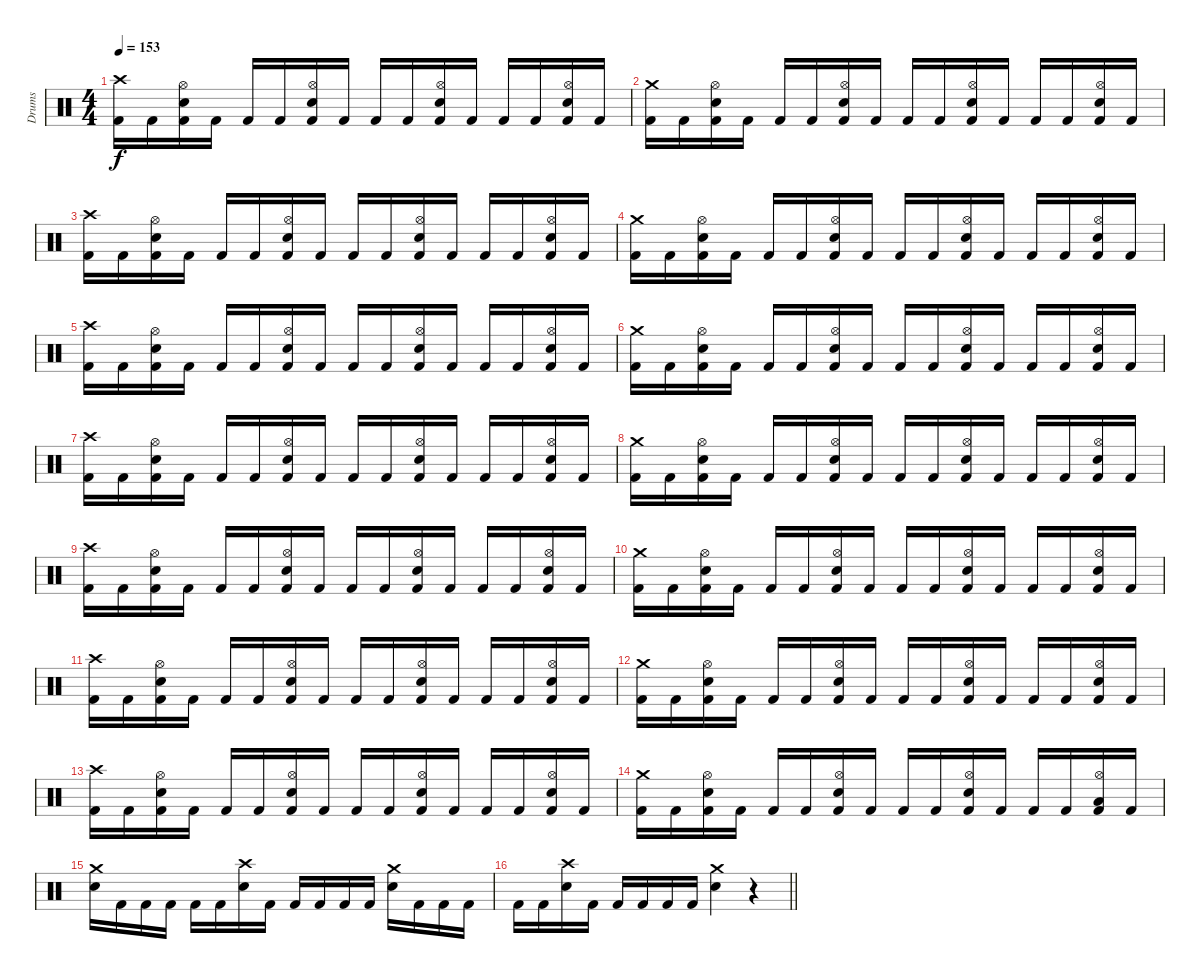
\track ("Drums" "Drums") {instrument percussion}
\staff {score}
\articulation defaults
\ts (4 4)
\tempo 153
\clef neutral
\ks c
("Crash high (hit)" "Kick (hit) 2").16{dy f} "Kick (hit) 2".16 ("Hi-Hat (open)" "Snare (hit) 2" "Kick (hit) 2").16 "Kick (hit) 2".16 "Kick (hit) 2".16 "Kick (hit) 2".16 ("Hi-Hat (open)" "Snare (hit) 2" "Kick (hit) 2").16 "Kick (hit) 2".16 "Kick (hit) 2".16 "Kick (hit) 2".16 ("Hi-Hat (open)" "Snare (hit) 2" "Kick (hit) 2").16 "Kick (hit) 2".16 "Kick (hit) 2".16 "Kick (hit) 2".16 ("Hi-Hat (open)" "Snare (hit) 2" "Kick (hit) 2").16 "Kick (hit) 2".16 |
("Crash medium (hit)" "Kick (hit) 2").16 "Kick (hit) 2".16 ("Hi-Hat (open)" "Snare (hit) 2" "Kick (hit) 2").16 "Kick (hit) 2".16 "Kick (hit) 2".16 "Kick (hit) 2".16 ("Hi-Hat (open)" "Snare (hit) 2" "Kick (hit) 2").16 "Kick (hit) 2".16 "Kick (hit) 2".16 "Kick (hit) 2".16 ("Hi-Hat (open)" "Snare (hit) 2" "Kick (hit) 2").16 "Kick (hit) 2".16 "Kick (hit) 2".16 "Kick (hit) 2".16 ("Hi-Hat (open)" "Snare (hit) 2" "Kick (hit) 2").16 "Kick (hit) 2".16 |
("Crash high (hit)" "Kick (hit) 2").16 "Kick (hit) 2".16 ("Hi-Hat (open)" "Snare (hit) 2" "Kick (hit) 2").16 "Kick (hit) 2".16 "Kick (hit) 2".16 "Kick (hit) 2".16 ("Hi-Hat (open)" "Snare (hit) 2" "Kick (hit) 2").16 "Kick (hit) 2".16 "Kick (hit) 2".16 "Kick (hit) 2".16 ("Hi-Hat (open)" "Snare (hit) 2" "Kick (hit) 2").16 "Kick (hit) 2".16 "Kick (hit) 2".16 "Kick (hit) 2".16 ("Hi-Hat (open)" "Snare (hit) 2" "Kick (hit) 2").16 "Kick (hit) 2".16 |
("Crash medium (hit)" "Kick (hit) 2").16 "Kick (hit) 2".16 ("Hi-Hat (open)" "Snare (hit) 2" "Kick (hit) 2").16 "Kick (hit) 2".16 "Kick (hit) 2".16 "Kick (hit) 2".16 ("Hi-Hat (open)" "Snare (hit) 2" "Kick (hit) 2").16 "Kick (hit) 2".16 "Kick (hit) 2".16 "Kick (hit) 2".16 ("Hi-Hat (open)" "Snare (hit) 2" "Kick (hit) 2").16 "Kick (hit) 2".16 "Kick (hit) 2".16 "Kick (hit) 2".16 ("Hi-Hat (open)" "Snare (hit) 2" "Kick (hit) 2").16 "Kick (hit) 2".16 |
("Crash high (hit)" "Kick (hit) 2").16 "Kick (hit) 2".16 ("Hi-Hat (open)" "Snare (hit) 2" "Kick (hit) 2").16 "Kick (hit) 2".16 "Kick (hit) 2".16 "Kick (hit) 2".16 ("Hi-Hat (open)" "Snare (hit) 2" "Kick (hit) 2").16 "Kick (hit) 2".16 "Kick (hit) 2".16 "Kick (hit) 2".16 ("Hi-Hat (open)" "Snare (hit) 2" "Kick (hit) 2").16 "Kick (hit) 2".16 "Kick (hit) 2".16 "Kick (hit) 2".16 ("Hi-Hat (open)" "Snare (hit) 2" "Kick (hit) 2").16 "Kick (hit) 2".16 |
("Crash medium (hit)" "Kick (hit) 2").16 "Kick (hit) 2".16 ("Hi-Hat (open)" "Snare (hit) 2" "Kick (hit) 2").16 "Kick (hit) 2".16 "Kick (hit) 2".16 "Kick (hit) 2".16 ("Hi-Hat (open)" "Snare (hit) 2" "Kick (hit) 2").16 "Kick (hit) 2".16 "Kick (hit) 2".16 "Kick (hit) 2".16 ("Hi-Hat (open)" "Snare (hit) 2" "Kick (hit) 2").16 "Kick (hit) 2".16 "Kick (hit) 2".16 "Kick (hit) 2".16 ("Hi-Hat (open)" "Snare (hit) 2" "Kick (hit) 2").16 "Kick (hit) 2".16 |
("Crash high (hit)" "Kick (hit) 2").16 "Kick (hit) 2".16 ("Hi-Hat (open)" "Snare (hit) 2" "Kick (hit) 2").16 "Kick (hit) 2".16 "Kick (hit) 2".16 "Kick (hit) 2".16 ("Hi-Hat (open)" "Snare (hit) 2" "Kick (hit) 2").16 "Kick (hit) 2".16 "Kick (hit) 2".16 "Kick (hit) 2".16 ("Hi-Hat (open)" "Snare (hit) 2" "Kick (hit) 2").16 "Kick (hit) 2".16 "Kick (hit) 2".16 "Kick (hit) 2".16 ("Hi-Hat (open)" "Snare (hit) 2" "Kick (hit) 2").16 "Kick (hit) 2".16 |
("Crash medium (hit)" "Kick (hit) 2").16 "Kick (hit) 2".16 ("Hi-Hat (open)" "Snare (hit) 2" "Kick (hit) 2").16 "Kick (hit) 2".16 "Kick (hit) 2".16 "Kick (hit) 2".16 ("Hi-Hat (open)" "Snare (hit) 2" "Kick (hit) 2").16 "Kick (hit) 2".16 "Kick (hit) 2".16 "Kick (hit) 2".16 ("Hi-Hat (open)" "Snare (hit) 2" "Kick (hit) 2").16 "Kick (hit) 2".16 "Kick (hit) 2".16 "Kick (hit) 2".16 ("Hi-Hat (open)" "Snare (hit) 2" "Kick (hit) 2").16 "Kick (hit) 2".16 |
("Crash high (hit)" "Kick (hit) 2").16 "Kick (hit) 2".16 ("Hi-Hat (open)" "Snare (hit) 2" "Kick (hit) 2").16 "Kick (hit) 2".16 "Kick (hit) 2".16 "Kick (hit) 2".16 ("Hi-Hat (open)" "Snare (hit) 2" "Kick (hit) 2").16 "Kick (hit) 2".16 "Kick (hit) 2".16 "Kick (hit) 2".16 ("Hi-Hat (open)" "Snare (hit) 2" "Kick (hit) 2").16 "Kick (hit) 2".16 "Kick (hit) 2".16 "Kick (hit) 2".16 ("Hi-Hat (open)" "Snare (hit) 2" "Kick (hit) 2").16 "Kick (hit) 2".16 |
("Crash medium (hit)" "Kick (hit) 2").16 "Kick (hit) 2".16 ("Hi-Hat (open)" "Snare (hit) 2" "Kick (hit) 2").16 "Kick (hit) 2".16 "Kick (hit) 2".16 "Kick (hit) 2".16 ("Hi-Hat (open)" "Snare (hit) 2" "Kick (hit) 2").16 "Kick (hit) 2".16 "Kick (hit) 2".16 "Kick (hit) 2".16 ("Hi-Hat (open)" "Snare (hit) 2" "Kick (hit) 2").16 "Kick (hit) 2".16 "Kick (hit) 2".16 "Kick (hit) 2".16 ("Hi-Hat (open)" "Snare (hit) 2" "Kick (hit) 2").16 "Kick (hit) 2".16 |
("Crash high (hit)" "Kick (hit) 2").16 "Kick (hit) 2".16 ("Hi-Hat (open)" "Snare (hit) 2" "Kick (hit) 2").16 "Kick (hit) 2".16 "Kick (hit) 2".16 "Kick (hit) 2".16 ("Hi-Hat (open)" "Snare (hit) 2" "Kick (hit) 2").16 "Kick (hit) 2".16 "Kick (hit) 2".16 "Kick (hit) 2".16 ("Hi-Hat (open)" "Snare (hit) 2" "Kick (hit) 2").16 "Kick (hit) 2".16 "Kick (hit) 2".16 "Kick (hit) 2".16 ("Hi-Hat (open)" "Snare (hit) 2" "Kick (hit) 2").16 "Kick (hit) 2".16 |
("Crash medium (hit)" "Kick (hit) 2").16 "Kick (hit) 2".16 ("Hi-Hat (open)" "Snare (hit) 2" "Kick (hit) 2").16 "Kick (hit) 2".16 "Kick (hit) 2".16 "Kick (hit) 2".16 ("Hi-Hat (open)" "Snare (hit) 2" "Kick (hit) 2").16 "Kick (hit) 2".16 "Kick (hit) 2".16 "Kick (hit) 2".16 ("Hi-Hat (open)" "Snare (hit) 2" "Kick (hit) 2").16 "Kick (hit) 2".16 "Kick (hit) 2".16 "Kick (hit) 2".16 ("Hi-Hat (open)" "Snare (hit) 2" "Kick (hit) 2").16 "Kick (hit) 2".16 |
("Crash high (hit)" "Kick (hit) 2").16 "Kick (hit) 2".16 ("Hi-Hat (open)" "Snare (hit) 2" "Kick (hit) 2").16 "Kick (hit) 2".16 "Kick (hit) 2".16 "Kick (hit) 2".16 ("Hi-Hat (open)" "Snare (hit) 2" "Kick (hit) 2").16 "Kick (hit) 2".16 "Kick (hit) 2".16 "Kick (hit) 2".16 ("Hi-Hat (open)" "Snare (hit) 2" "Kick (hit) 2").16 "Kick (hit) 2".16 "Kick (hit) 2".16 "Kick (hit) 2".16 ("Hi-Hat (open)" "Snare (hit) 2" "Kick (hit) 2").16 "Kick (hit) 2".16 |
("Crash medium (hit)" "Kick (hit) 2").16 "Kick (hit) 2".16 ("Hi-Hat (open)" "Snare (hit) 2" "Kick (hit) 2").16 "Kick (hit) 2".16 "Kick (hit) 2".16 "Kick (hit) 2".16 ("Hi-Hat (open)" "Snare (hit) 2" "Kick (hit) 2").16 "Kick (hit) 2".16 "Kick (hit) 2".16 "Kick (hit) 2".16 ("Hi-Hat (open)" "Snare (hit) 2" "Kick (hit) 2").16 "Kick (hit) 2".16 "Kick (hit) 2".16 "Kick (hit) 2".16 ("Hi-Hat (open)" "Low Tom (hit)" "Kick (hit) 2").16 "Kick (hit) 2".16 |
("Crash medium (hit)" "Snare (hit) 2").16 "Kick (hit) 2".16 "Kick (hit) 2".16 "Kick (hit) 2".16 "Kick (hit) 2".16 "Kick (hit) 2".16 ("Crash high (hit)" "Snare (hit) 2").16 "Kick (hit) 2".16 "Kick (hit) 2".16 "Kick (hit) 2".16 "Kick (hit) 2".16 "Kick (hit) 2".16 ("Crash medium (hit)" "Snare (hit) 2").16 "Kick (hit) 2".16 "Kick (hit) 2".16 "Kick (hit) 2".16 |
\barLineRight lightlight "Kick (hit) 2".16 "Kick (hit) 2".16
("Crash high (hit)" "Snare (hit) 2").16 "Kick (hit) 2".16 "Kick (hit) 2".16 "Kick (hit) 2".16 "Kick (hit) 2".16 "Kick (hit) 2".16 ("Crash medium (hit)" "Snare (hit) 2").4 r.4
